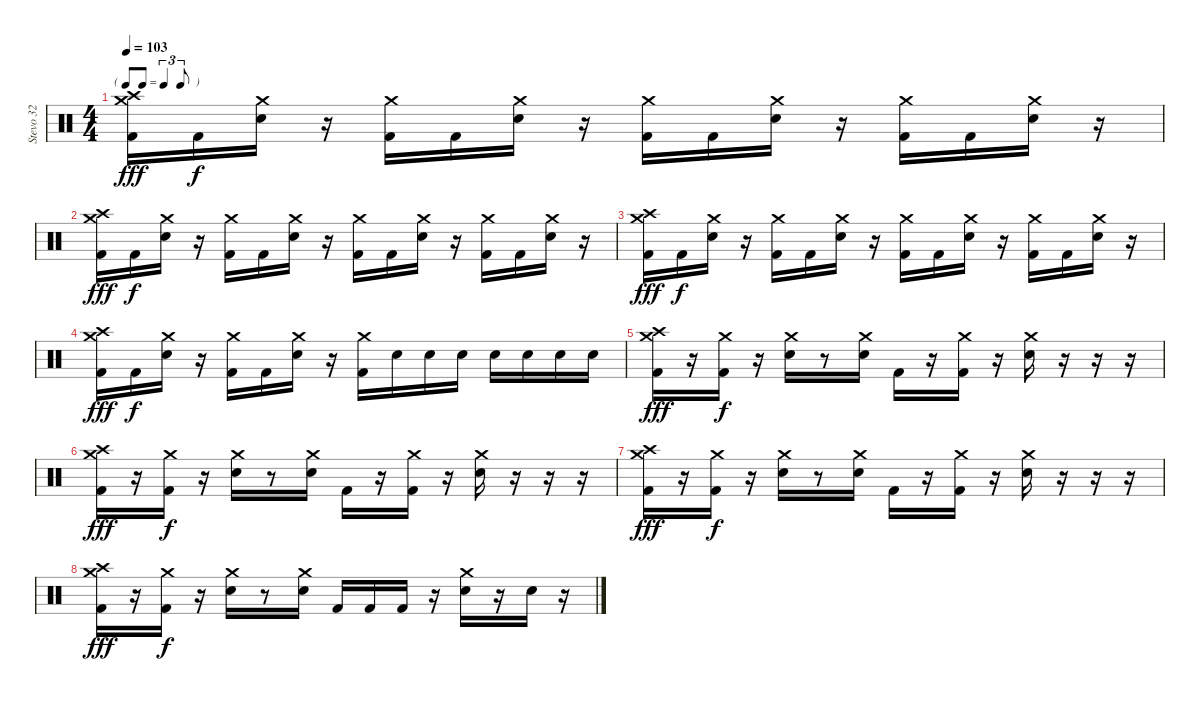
\track ("Stevo 32" "Stevo 32") {instrument percussion}
\staff {score}
\articulation defaults
\ts (4 4)
\tf triplet8th
\tempo 103
\clef neutral
\ks c
("Crash high (hit)" "Crash medium (hit)" "Kick (hit) 2").16{dy fff} "Kick (hit) 2".16{dy f} ("Crash medium (hit)" "Electric Snare (hit)").16 r.16 ("Crash medium (hit)" "Kick (hit) 2").16 "Kick (hit) 2".16 ("Crash medium (hit)" "Electric Snare (hit)").16 r.16 ("Crash medium (hit)" "Kick (hit) 2").16 "Kick (hit) 2".16 ("Crash medium (hit)" "Electric Snare (hit)").16 r.16 ("Crash medium (hit)" "Kick (hit) 2").16 "Kick (hit) 2".16 ("Crash medium (hit)" "Electric Snare (hit)").16 r.16 |
("Crash high (hit)" "Crash medium (hit)" "Kick (hit) 2").16{dy fff} "Kick (hit) 2".16{dy f} ("Crash medium (hit)" "Electric Snare (hit)").16 r.16 ("Crash medium (hit)" "Kick (hit) 2").16 "Kick (hit) 2".16 ("Crash medium (hit)" "Electric Snare (hit)").16 r.16 ("Crash medium (hit)" "Kick (hit) 2").16 "Kick (hit) 2".16 ("Crash medium (hit)" "Electric Snare (hit)").16 r.16 ("Crash medium (hit)" "Kick (hit) 2").16 "Kick (hit) 2".16 ("Crash medium (hit)" "Electric Snare (hit)").16 r.16 |
("Crash high (hit)" "Crash medium (hit)" "Kick (hit) 2").16{dy fff} "Kick (hit) 2".16{dy f} ("Crash medium (hit)" "Electric Snare (hit)").16 r.16 ("Crash medium (hit)" "Kick (hit) 2").16 "Kick (hit) 2".16 ("Crash medium (hit)" "Electric Snare (hit)").16 r.16 ("Crash medium (hit)" "Kick (hit) 2").16 "Kick (hit) 2".16 ("Crash medium (hit)" "Electric Snare (hit)").16 r.16 ("Crash medium (hit)" "Kick (hit) 2").16 "Kick (hit) 2".16 ("Crash medium (hit)" "Electric Snare (hit)").16 r.16 |
("Crash high (hit)" "Crash medium (hit)" "Kick (hit) 2").16{dy fff} "Kick (hit) 2".16{dy f} ("Crash medium (hit)" "Electric Snare (hit)").16 r.16 ("Crash medium (hit)" "Kick (hit) 2").16 "Kick (hit) 2".16 ("Crash medium (hit)" "Electric Snare (hit)").16 r.16 ("Crash medium (hit)" "Kick (hit) 2").16 "Electric Snare (hit)".16 "Electric Snare (hit)".16 "Electric Snare (hit)".16 "Electric Snare (hit)".16 "Electric Snare (hit)".16 "Electric Snare (hit)".16 "Electric Snare (hit)".16 |
("Crash high (hit)" "Crash medium (hit)" "Kick (hit) 2").16{dy fff} r.16 ("Crash medium (hit)" "Kick (hit) 2").16{dy f} r.16 ("Crash medium (hit)" "Electric Snare (hit)").16 r.8 ("Crash medium (hit)" "Electric Snare (hit)").16 "Kick (hit) 2".16 r.16 ("Crash medium (hit)" "Kick (hit) 2").16 r.16 ("Crash medium (hit)" "Electric Snare (hit)").16 r.16 r.16 r.16 |
("Crash high (hit)" "Crash medium (hit)" "Kick (hit) 2").16{dy fff} r.16 ("Crash medium (hit)" "Kick (hit) 2").16{dy f} r.16 ("Crash medium (hit)" "Electric Snare (hit)").16 r.8 ("Crash medium (hit)" "Electric Snare (hit)").16 "Kick (hit) 2".16 r.16 ("Crash medium (hit)" "Kick (hit) 2").16 r.16 ("Crash medium (hit)" "Electric Snare (hit)").16 r.16 r.16 r.16 |
("Crash high (hit)" "Crash medium (hit)" "Kick (hit) 2").16{dy fff} r.16 ("Crash medium (hit)" "Kick (hit) 2").16{dy f} r.16 ("Crash medium (hit)" "Electric Snare (hit)").16 r.8 ("Crash medium (hit)" "Electric Snare (hit)").16 "Kick (hit) 2".16 r.16 ("Crash medium (hit)" "Kick (hit) 2").16 r.16 ("Crash medium (hit)" "Electric Snare (hit)").16 r.16 r.16 r.16 |
("Crash high (hit)" "Crash medium (hit)" "Kick (hit) 2").16{dy fff} r.16 ("Crash medium (hit)" "Kick (hit) 2").16{dy f} r.16 ("Crash medium (hit)" "Electric Snare (hit)").16 r.8 ("Crash medium (hit)" "Electric Snare (hit)").16 "Kick (hit) 2".16 "Kick (hit) 2".16 "Kick (hit) 2".16 r.16 ("Crash medium (hit)" "Electric Snare (hit)").16 r.16 "Electric Snare (hit)".16 r.16
